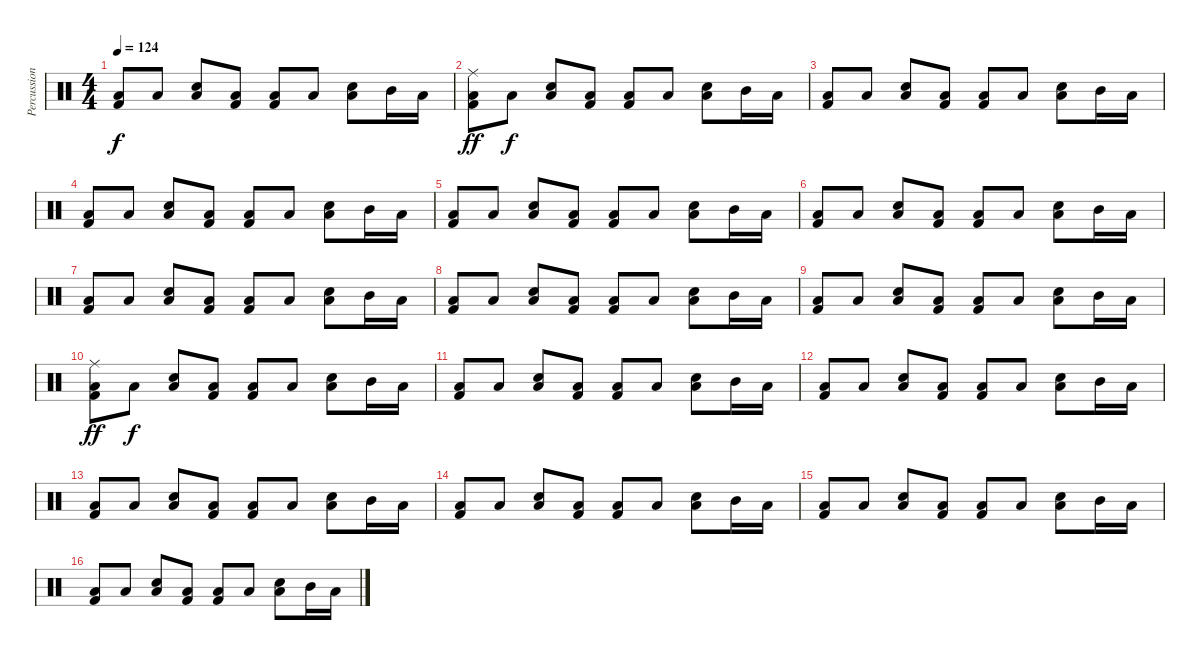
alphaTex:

\track ("Percussioni" "Percussion") {instrument percussion}
\staff {score}
\articulation defaults
\ts (4 4)
\tempo 124
\clef neutral
\ks c
("Low Floor Tom (hit)" "Kick (hit) 2").8{dy f} "Low Floor Tom (hit)".8 ("Snare (hit) 2" "Low Floor Tom (hit)").8 ("Low Floor Tom (hit)" "Kick (hit) 2").8 ("Low Floor Tom (hit)" "Kick (hit) 2").8 "Low Floor Tom (hit)".8 ("Snare (hit) 2" "Low Floor Tom (hit)").8 "Mid Tom (hit)".16 "Low Floor Tom (hit)".16 |
("Ride (middle)" "Low Floor Tom (hit)" "Kick (hit) 2").8{dy ff} "Low Floor Tom (hit)".8{dy f} ("Snare (hit) 2" "Low Floor Tom (hit)").8 ("Low Floor Tom (hit)" "Kick (hit) 2").8 ("Low Floor Tom (hit)" "Kick (hit) 2").8 "Low Floor Tom (hit)".8 ("Snare (hit) 2" "Low Floor Tom (hit)").8 "Mid Tom (hit)".16 "Low Floor Tom (hit)".16 |
("Low Floor Tom (hit)" "Kick (hit) 2").8 "Low Floor Tom (hit)".8 ("Snare (hit) 2" "Low Floor Tom (hit)").8 ("Low Floor Tom (hit)" "Kick (hit) 2").8 ("Low Floor Tom (hit)" "Kick (hit) 2").8 "Low Floor Tom (hit)".8 ("Snare (hit) 2" "Low Floor Tom (hit)").8 "Mid Tom (hit)".16 "Low Floor Tom (hit)".16 |
("Low Floor Tom (hit)" "Kick (hit) 2").8 "Low Floor Tom (hit)".8 ("Snare (hit) 2" "Low Floor Tom (hit)").8 ("Low Floor Tom (hit)" "Kick (hit) 2").8 ("Low Floor Tom (hit)" "Kick (hit) 2").8 "Low Floor Tom (hit)".8 ("Snare (hit) 2" "Low Floor Tom (hit)").8 "Mid Tom (hit)".16 "Low Floor Tom (hit)".16 |
("Low Floor Tom (hit)" "Kick (hit) 2").8 "Low Floor Tom (hit)".8 ("Snare (hit) 2" "Low Floor Tom (hit)").8 ("Low Floor Tom (hit)" "Kick (hit) 2").8 ("Low Floor Tom (hit)" "Kick (hit) 2").8 "Low Floor Tom (hit)".8 ("Snare (hit) 2" "Low Floor Tom (hit)").8 "Mid Tom (hit)".16 "Low Floor Tom (hit)".16 |
("Low Floor Tom (hit)" "Kick (hit) 2").8 "Low Floor Tom (hit)".8 ("Snare (hit) 2" "Low Floor Tom (hit)").8 ("Low Floor Tom (hit)" "Kick (hit) 2").8 ("Low Floor Tom (hit)" "Kick (hit) 2").8 "Low Floor Tom (hit)".8 ("Snare (hit) 2" "Low Floor Tom (hit)").8 "Mid Tom (hit)".16 "Low Floor Tom (hit)".16 |
("Low Floor Tom (hit)" "Kick (hit) 2").8 "Low Floor Tom (hit)".8 ("Snare (hit) 2" "Low Floor Tom (hit)").8 ("Low Floor Tom (hit)" "Kick (hit) 2").8 ("Low Floor Tom (hit)" "Kick (hit) 2").8 "Low Floor Tom (hit)".8 ("Snare (hit) 2" "Low Floor Tom (hit)").8 "Mid Tom (hit)".16 "Low Floor Tom (hit)".16 |
("Low Floor Tom (hit)" "Kick (hit) 2").8 "Low Floor Tom (hit)".8 ("Snare (hit) 2" "Low Floor Tom (hit)").8 ("Low Floor Tom (hit)" "Kick (hit) 2").8 ("Low Floor Tom (hit)" "Kick (hit) 2").8 "Low Floor Tom (hit)".8 ("Snare (hit) 2" "Low Floor Tom (hit)").8 "Mid Tom (hit)".16 "Low Floor Tom (hit)".16 |
("Low Floor Tom (hit)" "Kick (hit) 2").8 "Low Floor Tom (hit)".8 ("Snare (hit) 2" "Low Floor Tom (hit)").8 ("Low Floor Tom (hit)" "Kick (hit) 2").8 ("Low Floor Tom (hit)" "Kick (hit) 2").8 "Low Floor Tom (hit)".8 ("Snare (hit) 2" "Low Floor Tom (hit)").8 "Mid Tom (hit)".16 "Low Floor Tom (hit)".16 |
("Ride (middle)" "Low Floor Tom (hit)" "Kick (hit) 2").8{dy ff} "Low Floor Tom (hit)".8{dy f} ("Snare (hit) 2" "Low Floor Tom (hit)").8 ("Low Floor Tom (hit)" "Kick (hit) 2").8 ("Low Floor Tom (hit)" "Kick (hit) 2").8 "Low Floor Tom (hit)".8 ("Snare (hit) 2" "Low Floor Tom (hit)").8 "Mid Tom (hit)".16 "Low Floor Tom (hit)".16 |
("Low Floor Tom (hit)" "Kick (hit) 2").8 "Low Floor Tom (hit)".8 ("Snare (hit) 2" "Low Floor Tom (hit)").8 ("Low Floor Tom (hit)" "Kick (hit) 2").8 ("Low Floor Tom (hit)" "Kick (hit) 2").8 "Low Floor Tom (hit)".8 ("Snare (hit) 2" "Low Floor Tom (hit)").8 "Mid Tom (hit)".16 "Low Floor Tom (hit)".16 |
("Low Floor Tom (hit)" "Kick (hit) 2").8 "Low Floor Tom (hit)".8 ("Snare (hit) 2" "Low Floor Tom (hit)").8 ("Low Floor Tom (hit)" "Kick (hit) 2").8 ("Low Floor Tom (hit)" "Kick (hit) 2").8 "Low Floor Tom (hit)".8 ("Snare (hit) 2" "Low Floor Tom (hit)").8 "Mid Tom (hit)".16 "Low Floor Tom (hit)".16 |
("Low Floor Tom (hit)" "Kick (hit) 2").8 "Low Floor Tom (hit)".8 ("Snare (hit) 2" "Low Floor Tom (hit)").8 ("Low Floor Tom (hit)" "Kick (hit) 2").8 ("Low Floor Tom (hit)" "Kick (hit) 2").8 "Low Floor Tom (hit)".8 ("Snare (hit) 2" "Low Floor Tom (hit)").8 "Mid Tom (hit)".16 "Low Floor Tom (hit)".16 |
("Low Floor Tom (hit)" "Kick (hit) 2").8 "Low Floor Tom (hit)".8 ("Snare (hit) 2" "Low Floor Tom (hit)").8 ("Low Floor Tom (hit)" "Kick (hit) 2").8 ("Low Floor Tom (hit)" "Kick (hit) 2").8 "Low Floor Tom (hit)".8 ("Snare (hit) 2" "Low Floor Tom (hit)").8 "Mid Tom (hit)".16 "Low Floor Tom (hit)".16 |
("Low Floor Tom (hit)" "Kick (hit) 2").8 "Low Floor Tom (hit)".8 ("Snare (hit) 2" "Low Floor Tom (hit)").8 ("Low Floor Tom (hit)" "Kick (hit) 2").8 ("Low Floor Tom (hit)" "Kick (hit) 2").8 "Low Floor Tom (hit)".8 ("Snare (hit) 2" "Low Floor Tom (hit)").8 "Mid Tom (hit)".16 "Low Floor Tom (hit)".16 |
("Low Floor Tom (hit)" "Kick (hit) 2").8 "Low Floor Tom (hit)".8 ("Snare (hit) 2" "Low Floor Tom (hit)").8 ("Low Floor Tom (hit)" "Kick (hit) 2").8 ("Low Floor Tom (hit)" "Kick (hit) 2").8 "Low Floor Tom (hit)".8 ("Snare (hit) 2" "Low Floor Tom (hit)").8 "Mid Tom (hit)".16 "Low Floor Tom (hit)".16
